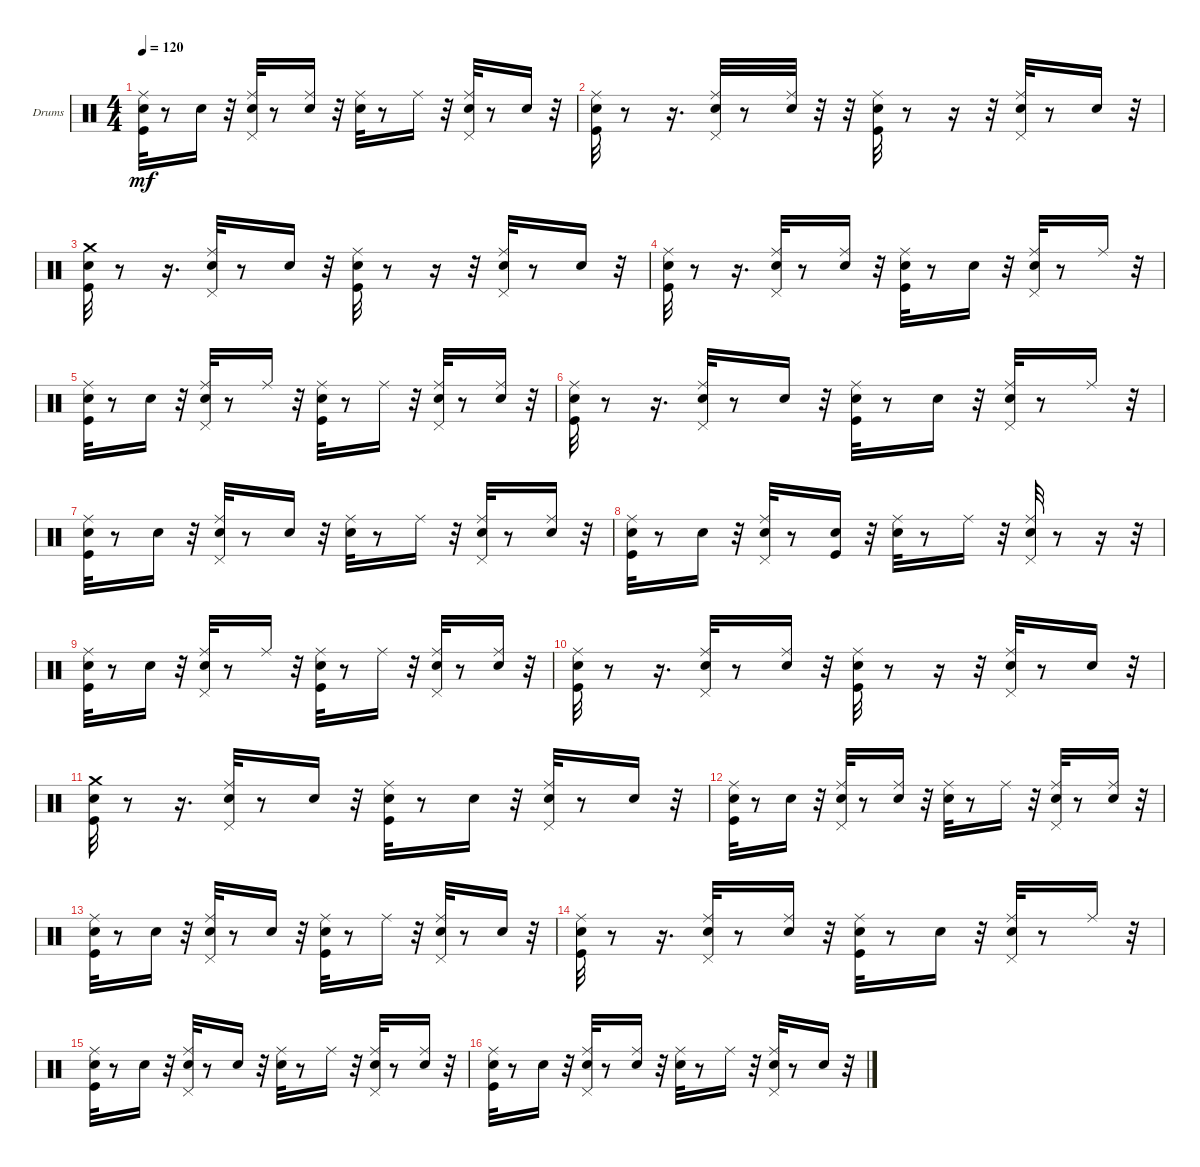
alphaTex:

\bracketExtendMode groupsimilarinstruments
\firstSystemTrackNameOrientation horizontal
\otherSystemsTrackNameOrientation horizontal
\track ("Drums   (BB)" "Drums") {instrument percussion}
\staff {score}
\articulation defaults
\ts (4 4)
\tempo 120
\clef neutral
\ks c
("Kick (hit)" "Snare (hit) 2" "Ride (middle)").32{dy mf} r.8 "Snare (hit) 2".16 r.32 ("Snare (hit) 2" "Ride (middle)" "Pedal Hi-Hat (hit)").32 r.8 ("Snare (hit) 2" "Ride (middle)").16 r.32 ("Snare (hit) 2" "Ride (middle)").32 r.8 "Ride (middle)".16 r.32 ("Snare (hit) 2" "Ride (middle)" "Pedal Hi-Hat (hit)").32 r.8 "Snare (hit) 2".16 r.32 |
("Kick (hit)" "Snare (hit) 2" "Ride (middle)").32 r.8 r.16{d} ("Snare (hit) 2" "Ride (middle)" "Pedal Hi-Hat (hit)").32 r.8 ("Snare (hit) 2" "Ride (middle)").32 r.32 r.32 ("Kick (hit)" "Snare (hit) 2" "Ride (middle)").32 r.8 r.16 r.32 ("Snare (hit) 2" "Ride (middle)" "Pedal Hi-Hat (hit)").32 r.8 "Snare (hit) 2".16 r.32 |
("Kick (hit)" "Snare (hit) 2" "Crash medium (hit)").32 r.8 r.16{d} ("Snare (hit) 2" "Ride (middle)" "Pedal Hi-Hat (hit)").32 r.8 "Snare (hit) 2".16 r.32 ("Kick (hit)" "Snare (hit) 2" "Ride (middle)").32 r.8 r.16 r.32 ("Snare (hit) 2" "Ride (middle)" "Pedal Hi-Hat (hit)").32 r.8 "Snare (hit) 2".16 r.32 |
("Kick (hit)" "Snare (hit) 2" "Ride (middle)").32 r.8 r.16{d} ("Snare (hit) 2" "Ride (middle)" "Pedal Hi-Hat (hit)").32 r.8 ("Snare (hit) 2" "Ride (middle)").16 r.32 ("Kick (hit)" "Snare (hit) 2" "Ride (middle)").32 r.8 "Snare (hit) 2".16 r.32 ("Snare (hit) 2" "Ride (middle)" "Pedal Hi-Hat (hit)").32 r.8 "Ride (middle)".16 r.32 |
("Kick (hit)" "Snare (hit) 2" "Ride (middle)").32 r.8 "Snare (hit) 2".16 r.32 ("Snare (hit) 2" "Ride (middle)" "Pedal Hi-Hat (hit)").32 r.8 "Ride (middle)".16 r.32 ("Kick (hit)" "Snare (hit) 2" "Ride (middle)").32 r.8 "Ride (middle)".16 r.32 ("Snare (hit) 2" "Ride (middle)" "Pedal Hi-Hat (hit)").32 r.8 ("Snare (hit) 2" "Ride (middle)").16 r.32 |
("Kick (hit)" "Snare (hit) 2" "Ride (middle)").32 r.8 r.16{d} ("Snare (hit) 2" "Ride (middle)" "Pedal Hi-Hat (hit)").32 r.8 "Snare (hit) 2".16 r.32 ("Kick (hit)" "Snare (hit) 2" "Ride (middle)").32 r.8 "Snare (hit) 2".16 r.32 ("Snare (hit) 2" "Ride (middle)" "Pedal Hi-Hat (hit)").32 r.8 "Ride (middle)".16 r.32 |
("Kick (hit)" "Snare (hit) 2" "Ride (middle)").32 r.8 "Snare (hit) 2".16 r.32 ("Snare (hit) 2" "Ride (middle)" "Pedal Hi-Hat (hit)").32 r.8 "Snare (hit) 2".16 r.32 ("Snare (hit) 2" "Ride (middle)").32 r.8 "Ride (middle)".16 r.32 ("Snare (hit) 2" "Ride (middle)" "Pedal Hi-Hat (hit)").32 r.8 ("Snare (hit) 2" "Ride (middle)").16 r.32 |
("Kick (hit)" "Snare (hit) 2" "Ride (middle)").32 r.8 "Snare (hit) 2".16 r.32 ("Snare (hit) 2" "Ride (middle)" "Pedal Hi-Hat (hit)").32 r.8 ("Kick (hit)" "Snare (hit) 2").16 r.32 ("Snare (hit) 2" "Ride (middle)").32 r.8 "Ride (middle)".16 r.32 ("Snare (hit) 2" "Ride (middle)" "Pedal Hi-Hat (hit)").32 r.8 r.16 r.32 |
("Kick (hit)" "Snare (hit) 2" "Ride (middle)").32 r.8 "Snare (hit) 2".16 r.32 ("Snare (hit) 2" "Ride (middle)" "Pedal Hi-Hat (hit)").32 r.8 "Ride (middle)".16 r.32 ("Kick (hit)" "Snare (hit) 2" "Ride (middle)").32 r.8 "Ride (middle)".16 r.32 ("Snare (hit) 2" "Ride (middle)" "Pedal Hi-Hat (hit)").32 r.8 ("Snare (hit) 2" "Ride (middle)").16 r.32 |
("Kick (hit)" "Snare (hit) 2" "Ride (middle)").32 r.8 r.16{d} ("Snare (hit) 2" "Ride (middle)" "Pedal Hi-Hat (hit)").32 r.8 ("Snare (hit) 2" "Ride (middle)").16 r.32 ("Kick (hit)" "Snare (hit) 2" "Ride (middle)").32 r.8 r.16 r.32 ("Snare (hit) 2" "Ride (middle)" "Pedal Hi-Hat (hit)").32 r.8 "Snare (hit) 2".16 r.32 |
("Kick (hit)" "Snare (hit) 2" "Crash medium (hit)").32 r.8 r.16{d} ("Snare (hit) 2" "Ride (middle)" "Pedal Hi-Hat (hit)").32 r.8 "Snare (hit) 2".16 r.32 ("Kick (hit)" "Snare (hit) 2" "Ride (middle)").32 r.8 "Snare (hit) 2".16 r.32 ("Snare (hit) 2" "Ride (middle)" "Pedal Hi-Hat (hit)").32 r.8 "Snare (hit) 2".16 r.32 |
("Kick (hit)" "Snare (hit) 2" "Ride (middle)").32 r.8 "Snare (hit) 2".16 r.32 ("Snare (hit) 2" "Ride (middle)" "Pedal Hi-Hat (hit)").32 r.8 ("Snare (hit) 2" "Ride (middle)").16 r.32 ("Snare (hit) 2" "Ride (middle)").32 r.8 "Ride (middle)".16 r.32 ("Snare (hit) 2" "Ride (middle)" "Pedal Hi-Hat (hit)").32 r.8 ("Snare (hit) 2" "Ride (middle)").16 r.32 |
("Kick (hit)" "Snare (hit) 2" "Ride (middle)").32 r.8 "Snare (hit) 2".16 r.32 ("Snare (hit) 2" "Ride (middle)" "Pedal Hi-Hat (hit)").32 r.8 "Snare (hit) 2".16 r.32 ("Kick (hit)" "Snare (hit) 2" "Ride (middle)").32 r.8 "Ride (middle)".16 r.32 ("Snare (hit) 2" "Ride (middle)" "Pedal Hi-Hat (hit)").32 r.8 "Snare (hit) 2".16 r.32 |
("Kick (hit)" "Snare (hit) 2" "Ride (middle)").32 r.8 r.16{d} ("Snare (hit) 2" "Ride (middle)" "Pedal Hi-Hat (hit)").32 r.8 ("Snare (hit) 2" "Ride (middle)").16 r.32 ("Kick (hit)" "Snare (hit) 2" "Ride (middle)").32 r.8 "Snare (hit) 2".16 r.32 ("Snare (hit) 2" "Ride (middle)" "Pedal Hi-Hat (hit)").32 r.8 "Ride (middle)".16 r.32 |
("Kick (hit)" "Snare (hit) 2" "Ride (middle)").32 r.8 "Snare (hit) 2".16 r.32 ("Snare (hit) 2" "Ride (middle)" "Pedal Hi-Hat (hit)").32 r.8 "Snare (hit) 2".16 r.32 ("Snare (hit) 2" "Ride (middle)").32 r.8 "Ride (middle)".16 r.32 ("Snare (hit) 2" "Ride (middle)" "Pedal Hi-Hat (hit)").32 r.8 ("Snare (hit) 2" "Ride (middle)").16 r.32 |
("Kick (hit)" "Snare (hit) 2" "Ride (middle)").32 r.8 "Snare (hit) 2".16 r.32 ("Snare (hit) 2" "Ride (middle)" "Pedal Hi-Hat (hit)").32 r.8 ("Snare (hit) 2" "Ride (middle)").16 r.32 ("Snare (hit) 2" "Ride (middle)").32 r.8 "Ride (middle)".16 r.32 ("Snare (hit) 2" "Ride (middle)" "Pedal Hi-Hat (hit)").32 r.8 "Snare (hit) 2".16 r.32
